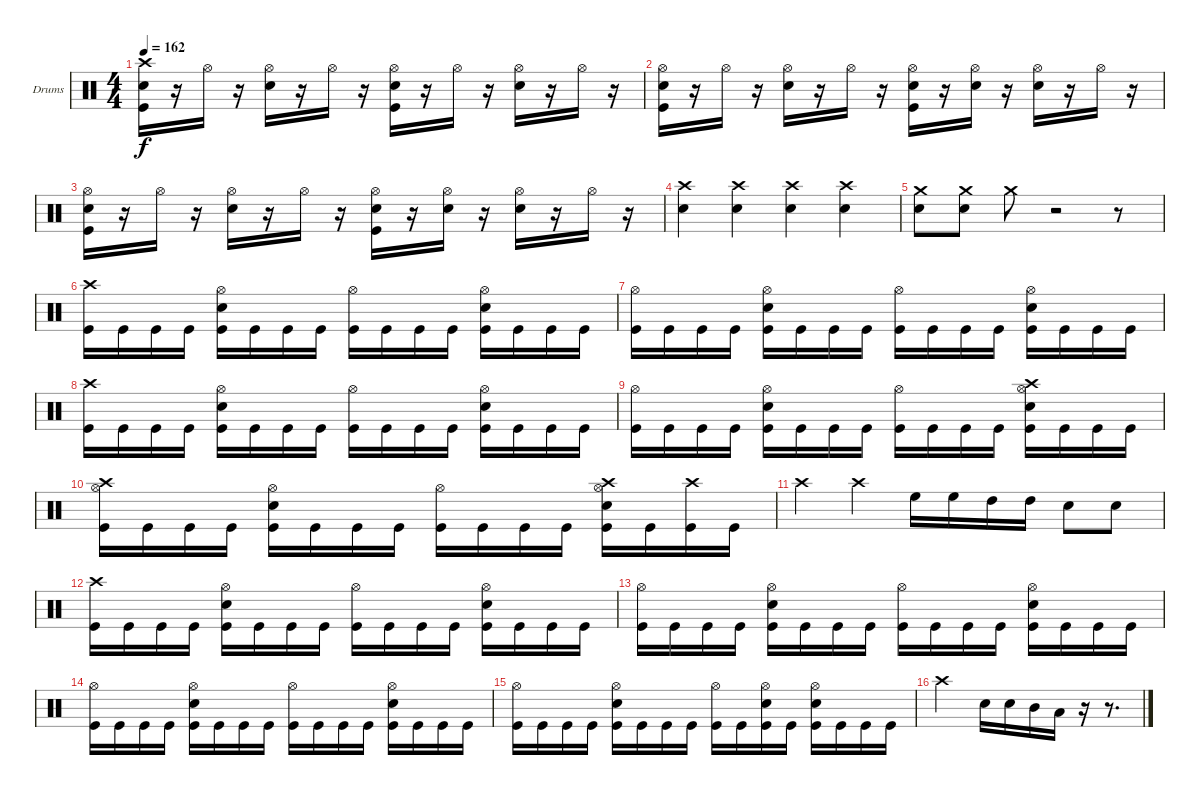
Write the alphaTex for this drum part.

\bracketExtendMode groupsimilarinstruments
\firstSystemTrackNameOrientation horizontal
\otherSystemsTrackNameOrientation horizontal
\track ("Drumkit" "Drums") {instrument percussion}
\staff {score}
\articulation defaults
\ts (4 4)
\tempo 162
\clef neutral
\ks c
("Crash high (hit)" "Snare (hit) 2" "Kick (hit)").16{dy f} r.16 "Hi-Hat (open)".16 r.16 ("Snare (hit) 2" "Hi-Hat (open)").16 r.16 "Hi-Hat (open)".16 r.16 ("Snare (hit) 2" "Hi-Hat (open)" "Kick (hit)").16 r.16 "Hi-Hat (open)".16 r.16 ("Snare (hit) 2" "Hi-Hat (open)").16 r.16 "Hi-Hat (open)".16 r.16 |
("Snare (hit) 2" "Hi-Hat (open)" "Kick (hit)").16 r.16 "Hi-Hat (open)".16 r.16 ("Snare (hit) 2" "Hi-Hat (open)").16 r.16 "Hi-Hat (open)".16 r.16 ("Snare (hit) 2" "Hi-Hat (open)" "Kick (hit)").16 r.16 ("Snare (hit) 2" "Hi-Hat (open)").16 r.16 ("Snare (hit) 2" "Hi-Hat (open)").16 r.16 "Hi-Hat (open)".16 r.16 |
("Snare (hit) 2" "Hi-Hat (open)" "Kick (hit)").16 r.16 "Hi-Hat (open)".16 r.16 ("Snare (hit) 2" "Hi-Hat (open)").16 r.16 "Hi-Hat (open)".16 r.16 ("Snare (hit) 2" "Hi-Hat (open)" "Kick (hit)").16 r.16 ("Hi-Hat (open)" "Snare (hit) 2").16 r.16 ("Snare (hit) 2" "Hi-Hat (open)").16 r.16 "Hi-Hat (open)".16 r.16 |
("Crash high (hit)" "Snare (hit) 2").4 ("Crash high (hit)" "Snare (hit) 2").4 ("Crash high (hit)" "Snare (hit) 2").4 ("Crash high (hit)" "Snare (hit) 2").4 |
("Crash medium (hit)" "Snare (hit) 2").8 ("Crash medium (hit)" "Snare (hit) 2").8 "Crash medium (hit)".8 r.2 r.8 |
("Crash high (hit)" "Kick (hit)").16 "Kick (hit)".16 "Kick (hit)".16 "Kick (hit)".16 ("Kick (hit)" "Snare (hit) 2" "Hi-Hat (open)").16 "Kick (hit)".16 "Kick (hit)".16 "Kick (hit)".16 ("Kick (hit)" "Hi-Hat (open)").16 "Kick (hit)".16 "Kick (hit)".16 "Kick (hit)".16 ("Kick (hit)" "Snare (hit) 2" "Hi-Hat (open)").16 "Kick (hit)".16 "Kick (hit)".16 "Kick (hit)".16 |
("Hi-Hat (open)" "Kick (hit)").16 "Kick (hit)".16 "Kick (hit)".16 "Kick (hit)".16 ("Kick (hit)" "Snare (hit) 2" "Hi-Hat (open)").16 "Kick (hit)".16 "Kick (hit)".16 "Kick (hit)".16 ("Kick (hit)" "Hi-Hat (open)").16 "Kick (hit)".16 "Kick (hit)".16 "Kick (hit)".16 ("Kick (hit)" "Snare (hit) 2" "Hi-Hat (open)").16 "Kick (hit)".16 "Kick (hit)".16 "Kick (hit)".16 |
("Crash high (hit)" "Kick (hit)").16 "Kick (hit)".16 "Kick (hit)".16 "Kick (hit)".16 ("Kick (hit)" "Snare (hit) 2" "Hi-Hat (open)").16 "Kick (hit)".16 "Kick (hit)".16 "Kick (hit)".16 ("Kick (hit)" "Hi-Hat (open)").16 "Kick (hit)".16 "Kick (hit)".16 "Kick (hit)".16 ("Kick (hit)" "Snare (hit) 2" "Hi-Hat (open)").16 "Kick (hit)".16 "Kick (hit)".16 "Kick (hit)".16 |
("Hi-Hat (open)" "Kick (hit)").16 "Kick (hit)".16 "Kick (hit)".16 "Kick (hit)".16 ("Kick (hit)" "Snare (hit) 2" "Hi-Hat (open)").16 "Kick (hit)".16 "Kick (hit)".16 "Kick (hit)".16 ("Kick (hit)" "Hi-Hat (open)").16 "Kick (hit)".16 "Kick (hit)".16 "Kick (hit)".16 ("Crash high (hit)" "Kick (hit)" "Snare (hit) 2" "Hi-Hat (open)").16 "Kick (hit)".16 "Kick (hit)".16 "Kick (hit)".16 |
("Crash high (hit)" "Hi-Hat (open)" "Kick (hit)").16 "Kick (hit)".16 "Kick (hit)".16 "Kick (hit)".16 ("Kick (hit)" "Snare (hit) 2" "Hi-Hat (open)").16 "Kick (hit)".16 "Kick (hit)".16 "Kick (hit)".16 ("Kick (hit)" "Hi-Hat (open)").16 "Kick (hit)".16 "Kick (hit)".16 "Kick (hit)".16 ("Crash high (hit)" "Kick (hit)" "Snare (hit) 2" "Hi-Hat (open)").16 "Kick (hit)".16 ("Crash high (hit)" "Kick (hit)").16 "Kick (hit)".16 |
"Crash high (hit)".4 "Crash high (hit)".4 "High Floor Tom (hit)".16 "High Floor Tom (hit)".16 "High Tom (hit)".16 "High Tom (hit)".16 "Snare (hit) 2".8 "Snare (hit) 2".8 |
("Crash high (hit)" "Kick (hit)").16 "Kick (hit)".16 "Kick (hit)".16 "Kick (hit)".16 ("Kick (hit)" "Snare (hit) 2" "Hi-Hat (open)").16 "Kick (hit)".16 "Kick (hit)".16 "Kick (hit)".16 ("Kick (hit)" "Hi-Hat (open)").16 "Kick (hit)".16 "Kick (hit)".16 "Kick (hit)".16 ("Kick (hit)" "Snare (hit) 2" "Hi-Hat (open)").16 "Kick (hit)".16 "Kick (hit)".16 "Kick (hit)".16 |
("Hi-Hat (open)" "Kick (hit)").16 "Kick (hit)".16 "Kick (hit)".16 "Kick (hit)".16 ("Kick (hit)" "Snare (hit) 2" "Hi-Hat (open)").16 "Kick (hit)".16 "Kick (hit)".16 "Kick (hit)".16 ("Kick (hit)" "Hi-Hat (open)").16 "Kick (hit)".16 "Kick (hit)".16 "Kick (hit)".16 ("Kick (hit)" "Snare (hit) 2" "Hi-Hat (open)").16 "Kick (hit)".16 "Kick (hit)".16 "Kick (hit)".16 |
("Hi-Hat (open)" "Kick (hit)").16 "Kick (hit)".16 "Kick (hit)".16 "Kick (hit)".16 ("Kick (hit)" "Snare (hit) 2" "Hi-Hat (open)").16 "Kick (hit)".16 "Kick (hit)".16 "Kick (hit)".16 ("Kick (hit)" "Hi-Hat (open)").16 "Kick (hit)".16 "Kick (hit)".16 "Kick (hit)".16 ("Kick (hit)" "Snare (hit) 2" "Hi-Hat (open)").16 "Kick (hit)".16 "Kick (hit)".16 "Kick (hit)".16 |
("Hi-Hat (open)" "Kick (hit)").16 "Kick (hit)".16 "Kick (hit)".16 "Kick (hit)".16 ("Kick (hit)" "Snare (hit) 2" "Hi-Hat (open)").16 "Kick (hit)".16 "Kick (hit)".16 "Kick (hit)".16 ("Kick (hit)" "Hi-Hat (open)").16 "Kick (hit)".16 ("Kick (hit)" "Snare (hit) 2" "Hi-Hat (open)").16 "Kick (hit)".16 ("Kick (hit)" "Snare (hit) 2" "Hi-Hat (open)").16 "Kick (hit)".16 "Kick (hit)".16 "Kick (hit)".16 |
"Crash high (hit)".2 "Snare (hit) 2".16 "Snare (hit) 2".16 "Mid Tom (hit)".16 "Low Tom (hit)".16 r.16 r.8{d}
